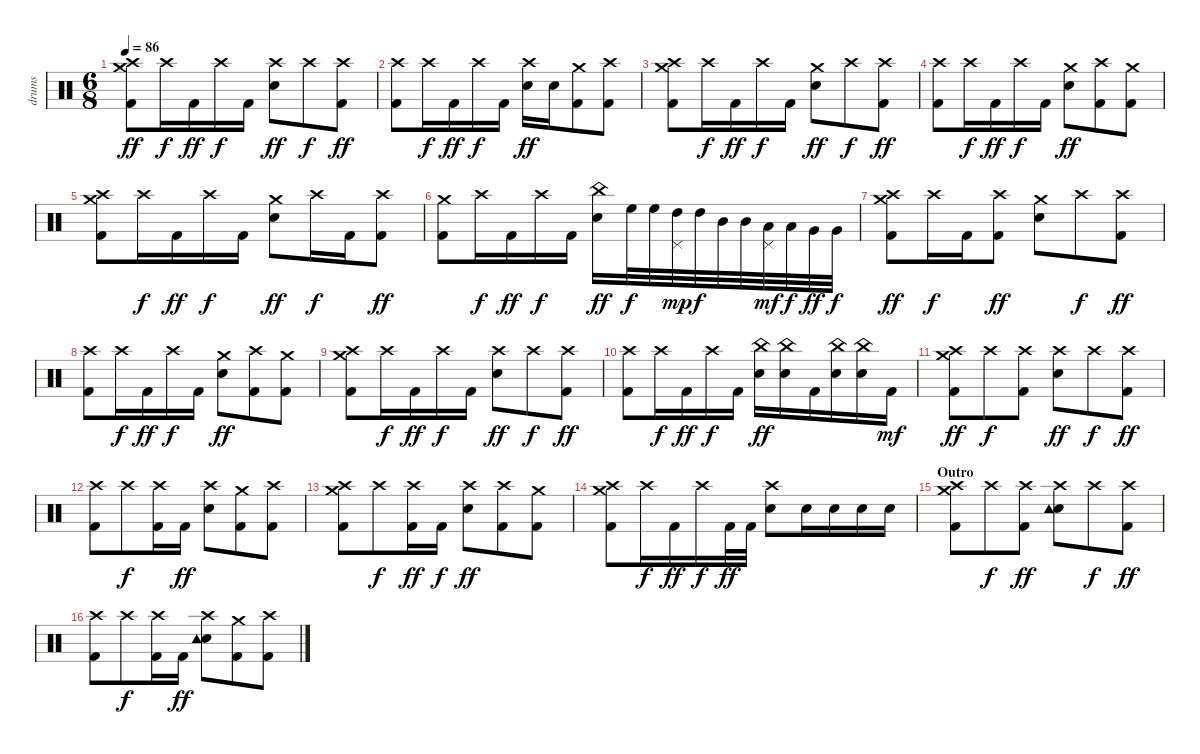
\track ("drums" "drums") {instrument percussion}
\staff {score}
\articulation defaults
\ts (6 8)
\tempo 86
\clef neutral
\ks c
("Crash medium (hit)" "Crash high (hit)" "Kick (hit) 2").8{dy ff} "Crash high (hit)".16{dy f} "Kick (hit) 2".16{dy ff} "Crash high (hit)".16{dy f} "Kick (hit) 2".16 ("Crash high (hit)" "Snare (hit) 2").8{dy ff} "Crash high (hit)".8{dy f} ("Crash high (hit)" "Kick (hit) 2").8{dy ff} |
("Crash high (hit)" "Kick (hit) 2").8 "Crash high (hit)".16{dy f} "Kick (hit) 2".16{dy ff} "Crash high (hit)".16{dy f} "Kick (hit) 2".16 ("Crash high (hit)" "Snare (hit) 2").16{dy ff} "Snare (hit) 2".16 ("Crash medium (hit)" "Kick (hit) 2").8 ("Crash high (hit)" "Kick (hit) 2").8 |
("Crash medium (hit)" "Crash high (hit)" "Kick (hit) 2").8 "Crash high (hit)".16{dy f} "Kick (hit) 2".16{dy ff} "Crash high (hit)".16{dy f} "Kick (hit) 2".16 ("Crash medium (hit)" "Snare (hit) 2").8{dy ff} "Crash high (hit)".8{dy f} ("Crash high (hit)" "Kick (hit) 2").8{dy ff} |
("Crash high (hit)" "Kick (hit) 2").8 "Crash high (hit)".16{dy f} "Kick (hit) 2".16{dy ff} "Crash high (hit)".16{dy f} "Kick (hit) 2".16 ("Crash medium (hit)" "Snare (hit) 2").8{dy ff} ("Crash high (hit)" "Kick (hit) 2").8 ("Crash medium (hit)" "Kick (hit) 2").8 |
("Crash medium (hit)" "Crash high (hit)" "Kick (hit) 2").8 "Crash high (hit)".16{dy f} "Kick (hit) 2".16{dy ff} "Crash high (hit)".16{dy f} "Kick (hit) 2".16 ("Crash medium (hit)" "Snare (hit) 2").8{dy ff} "Crash high (hit)".16{dy f} "Kick (hit) 2".16 ("Crash high (hit)" "Kick (hit) 2").8{dy ff} |
("Crash medium (hit)" "Kick (hit) 2").8 "Crash high (hit)".16{dy f} "Kick (hit) 2".16{dy ff} "Crash high (hit)".16{dy f} "Kick (hit) 2".16 ("China (hit)" "Snare (hit) 2").16{dy ff} "High Floor Tom (hit)".32{dy f} "High Floor Tom (hit)".32 ("High Tom (hit)" "Pedal Hi-Hat (hit)").32{dy mp} "High Tom (hit)".32{dy f} "Mid Tom (hit)".32 "Mid Tom (hit)".32 ("Low Tom (hit)" "Pedal Hi-Hat (hit)").32{dy mf} "Low Tom (hit)".32{dy f} "Very Low Tom (hit)".32{dy ff} "Very Low Tom (hit)".32{dy f} |
("Crash medium (hit)" "Crash high (hit)" "Kick (hit) 2").8{dy ff} "Crash high (hit)".16{dy f} "Kick (hit) 2".16 ("Crash high (hit)" "Kick (hit) 2").8{dy ff} ("Crash medium (hit)" "Snare (hit) 2").8 "Crash high (hit)".8{dy f} ("Crash high (hit)" "Kick (hit) 2").8{dy ff} |
("Crash high (hit)" "Kick (hit) 2").8 "Crash high (hit)".16{dy f} "Kick (hit) 2".16{dy ff} "Crash high (hit)".16{dy f} "Kick (hit) 2".16 ("Crash medium (hit)" "Snare (hit) 2").8{dy ff} ("Crash high (hit)" "Kick (hit) 2").8 ("Crash medium (hit)" "Kick (hit) 2").8 |
("Crash medium (hit)" "Crash high (hit)" "Kick (hit) 2").8 "Crash high (hit)".16{dy f} "Kick (hit) 2".16{dy ff} "Crash high (hit)".16{dy f} "Kick (hit) 2".16 ("Crash high (hit)" "Snare (hit) 2").8{dy ff} "Crash high (hit)".8{dy f} ("Crash high (hit)" "Kick (hit) 2").8{dy ff} |
("Crash high (hit)" "Kick (hit) 2").8 "Crash high (hit)".16{dy f} "Kick (hit) 2".16{dy ff} "Crash high (hit)".16{dy f} "Kick (hit) 2".16 ("China (hit)" "Snare (hit) 2").16{dy ff} ("China (hit)" "Snare (hit) 2").16 "Kick (hit) 2".16 ("China (hit)" "Snare (hit) 2").16 ("China (hit)" "Snare (hit) 2").16 "Kick (hit) 2".16{dy mf} |
("Crash medium (hit)" "Crash high (hit)" "Kick (hit) 2").8{dy ff} "Crash high (hit)".8{dy f} ("Crash high (hit)" "Kick (hit) 2").8 ("Crash high (hit)" "Snare (hit) 2").8{dy ff} "Crash high (hit)".8{dy f} ("Crash high (hit)" "Kick (hit) 2").8{dy ff} |
("Crash high (hit)" "Kick (hit) 2").8 "Crash high (hit)".8{dy f} ("Crash high (hit)" "Kick (hit) 2").16 "Kick (hit) 2".16{dy ff} ("Crash high (hit)" "Snare (hit) 2").8 ("Crash medium (hit)" "Kick (hit) 2").8 ("Crash high (hit)" "Kick (hit) 2").8 |
("Crash high (hit)" "Crash medium (hit)" "Kick (hit) 2").8 "Crash high (hit)".8{dy f} ("Crash high (hit)" "Kick (hit) 2").16{dy ff} "Kick (hit) 2".16{dy f} ("Crash high (hit)" "Snare (hit) 2").8{dy ff} ("Crash high (hit)" "Kick (hit) 2").8 ("Crash medium (hit)" "Kick (hit) 2").8 |
("Crash high (hit)" "Crash medium (hit)" "Kick (hit) 2").8 "Crash high (hit)".16{dy f} "Kick (hit) 2".16{dy ff} "Crash high (hit)".16{dy f} "Kick (hit) 2".32{dy ff} "Kick (hit) 2".32 ("Crash high (hit)" "Snare (hit) 2").8 "Snare (hit) 2".16 "Snare (hit) 2".16 "Snare (hit) 2".16 "Snare (hit) 2".16 |
\section ("" "Outro")
("Crash high (hit)" "Crash medium (hit)" "Kick (hit) 2").8 "Crash high (hit)".8{dy f} ("Crash high (hit)" "Kick (hit) 2").8{dy ff} ("Crash high (hit)" "Snare (hit) 2" "Tambourine (hit)").8 "Crash high (hit)".8{dy f} ("Crash high (hit)" "Kick (hit) 2").8{dy ff} |
("Crash high (hit)" "Kick (hit) 2").8 "Crash high (hit)".8{dy f} ("Crash high (hit)" "Kick (hit) 2").16 "Kick (hit) 2".16{dy ff} ("Crash high (hit)" "Snare (hit) 2" "Tambourine (hit)").8 ("Crash medium (hit)" "Kick (hit) 2").8 ("Crash high (hit)" "Kick (hit) 2").8
